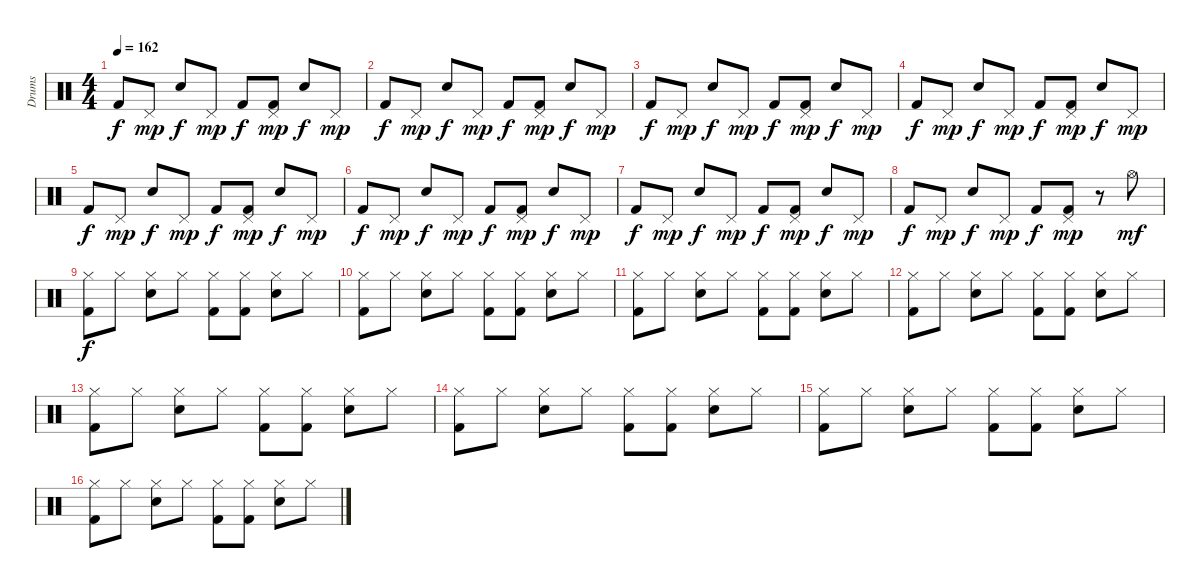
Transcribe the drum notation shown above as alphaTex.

\track ("Drums" "Drums") {instrument percussion}
\staff {score}
\articulation defaults
\ts (4 4)
\tempo 162
\clef neutral
\ks c "Kick (hit) 2".8{dy f} "Pedal Hi-Hat (hit)".8{dy mp} "Snare (hit) 2".8{dy f} "Pedal Hi-Hat (hit)".8{dy mp} "Kick (hit) 2".8{dy f}
("Pedal Hi-Hat (hit)" "Kick (hit) 2").8{dy mp} "Snare (hit) 2".8{dy f} "Pedal Hi-Hat (hit)".8{dy mp} |
"Kick (hit) 2".8{dy f} "Pedal Hi-Hat (hit)".8{dy mp} "Snare (hit) 2".8{dy f} "Pedal Hi-Hat (hit)".8{dy mp} "Kick (hit) 2".8{dy f} ("Pedal Hi-Hat (hit)" "Kick (hit) 2").8{dy mp} "Snare (hit) 2".8{dy f} "Pedal Hi-Hat (hit)".8{dy mp} |
"Kick (hit) 2".8{dy f} "Pedal Hi-Hat (hit)".8{dy mp} "Snare (hit) 2".8{dy f} "Pedal Hi-Hat (hit)".8{dy mp} "Kick (hit) 2".8{dy f} ("Pedal Hi-Hat (hit)" "Kick (hit) 2").8{dy mp} "Snare (hit) 2".8{dy f} "Pedal Hi-Hat (hit)".8{dy mp} |
"Kick (hit) 2".8{dy f} "Pedal Hi-Hat (hit)".8{dy mp} "Snare (hit) 2".8{dy f} "Pedal Hi-Hat (hit)".8{dy mp} "Kick (hit) 2".8{dy f} ("Pedal Hi-Hat (hit)" "Kick (hit) 2").8{dy mp} "Snare (hit) 2".8{dy f} "Pedal Hi-Hat (hit)".8{dy mp} |
"Kick (hit) 2".8{dy f} "Pedal Hi-Hat (hit)".8{dy mp} "Snare (hit) 2".8{dy f} "Pedal Hi-Hat (hit)".8{dy mp} "Kick (hit) 2".8{dy f} ("Pedal Hi-Hat (hit)" "Kick (hit) 2").8{dy mp} "Snare (hit) 2".8{dy f} "Pedal Hi-Hat (hit)".8{dy mp} |
"Kick (hit) 2".8{dy f} "Pedal Hi-Hat (hit)".8{dy mp} "Snare (hit) 2".8{dy f} "Pedal Hi-Hat (hit)".8{dy mp} "Kick (hit) 2".8{dy f} ("Pedal Hi-Hat (hit)" "Kick (hit) 2").8{dy mp} "Snare (hit) 2".8{dy f} "Pedal Hi-Hat (hit)".8{dy mp} |
"Kick (hit) 2".8{dy f} "Pedal Hi-Hat (hit)".8{dy mp} "Snare (hit) 2".8{dy f} "Pedal Hi-Hat (hit)".8{dy mp} "Kick (hit) 2".8{dy f} ("Pedal Hi-Hat (hit)" "Kick (hit) 2").8{dy mp} "Snare (hit) 2".8{dy f} "Pedal Hi-Hat (hit)".8{dy mp} |
"Kick (hit) 2".8{dy f} "Pedal Hi-Hat (hit)".8{dy mp} "Snare (hit) 2".8{dy f} "Pedal Hi-Hat (hit)".8{dy mp} "Kick (hit) 2".8{dy f} ("Pedal Hi-Hat (hit)" "Kick (hit) 2").8{dy mp} r.8 "Hi-Hat (open)".8{dy mf} |
("Hi-Hat (closed)" "Kick (hit) 2").8{dy f} "Hi-Hat (closed)".8 ("Hi-Hat (closed)" "Snare (hit) 2").8 "Hi-Hat (closed)".8 ("Hi-Hat (closed)" "Kick (hit) 2").8 ("Hi-Hat (closed)" "Kick (hit) 2").8 ("Hi-Hat (closed)" "Snare (hit) 2").8 "Hi-Hat (closed)".8 |
("Hi-Hat (closed)" "Kick (hit) 2").8 "Hi-Hat (closed)".8 ("Hi-Hat (closed)" "Snare (hit) 2").8 "Hi-Hat (closed)".8 ("Hi-Hat (closed)" "Kick (hit) 2").8 ("Hi-Hat (closed)" "Kick (hit) 2").8 ("Hi-Hat (closed)" "Snare (hit) 2").8 "Hi-Hat (closed)".8 |
("Hi-Hat (closed)" "Kick (hit) 2").8 "Hi-Hat (closed)".8 ("Hi-Hat (closed)" "Snare (hit) 2").8 "Hi-Hat (closed)".8 ("Hi-Hat (closed)" "Kick (hit) 2").8 ("Hi-Hat (closed)" "Kick (hit) 2").8 ("Hi-Hat (closed)" "Snare (hit) 2").8 "Hi-Hat (closed)".8 |
("Hi-Hat (closed)" "Kick (hit) 2").8 "Hi-Hat (closed)".8 ("Hi-Hat (closed)" "Snare (hit) 2").8 "Hi-Hat (closed)".8 ("Hi-Hat (closed)" "Kick (hit) 2").8 ("Hi-Hat (closed)" "Kick (hit) 2").8 ("Hi-Hat (closed)" "Snare (hit) 2").8 "Hi-Hat (closed)".8 |
("Hi-Hat (closed)" "Kick (hit) 2").8 "Hi-Hat (closed)".8 ("Hi-Hat (closed)" "Snare (hit) 2").8 "Hi-Hat (closed)".8 ("Hi-Hat (closed)" "Kick (hit) 2").8 ("Hi-Hat (closed)" "Kick (hit) 2").8 ("Hi-Hat (closed)" "Snare (hit) 2").8 "Hi-Hat (closed)".8 |
("Hi-Hat (closed)" "Kick (hit) 2").8 "Hi-Hat (closed)".8 ("Hi-Hat (closed)" "Snare (hit) 2").8 "Hi-Hat (closed)".8 ("Hi-Hat (closed)" "Kick (hit) 2").8 ("Hi-Hat (closed)" "Kick (hit) 2").8 ("Hi-Hat (closed)" "Snare (hit) 2").8 "Hi-Hat (closed)".8 |
("Hi-Hat (closed)" "Kick (hit) 2").8 "Hi-Hat (closed)".8 ("Hi-Hat (closed)" "Snare (hit) 2").8 "Hi-Hat (closed)".8 ("Hi-Hat (closed)" "Kick (hit) 2").8 ("Hi-Hat (closed)" "Kick (hit) 2").8 ("Hi-Hat (closed)" "Snare (hit) 2").8 "Hi-Hat (closed)".8 |
("Hi-Hat (closed)" "Kick (hit) 2").8 "Hi-Hat (closed)".8 ("Hi-Hat (closed)" "Snare (hit) 2").8 "Hi-Hat (closed)".8 ("Hi-Hat (closed)" "Kick (hit) 2").8 ("Hi-Hat (closed)" "Kick (hit) 2").8 ("Hi-Hat (closed)" "Snare (hit) 2").8 "Hi-Hat (closed)".8
